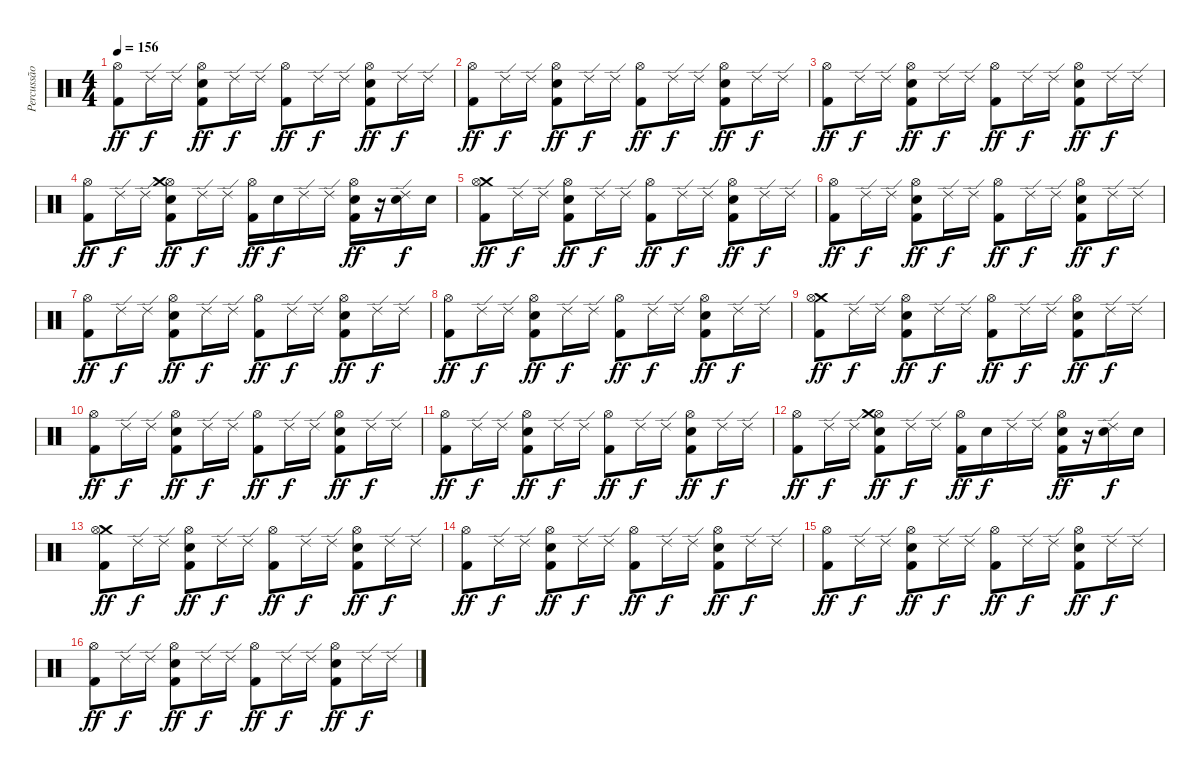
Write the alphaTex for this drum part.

\track ("Percussão" "Percussão") {instrument percussion}
\staff {score}
\articulation defaults
\ts (4 4)
\tempo 156
\clef neutral
\ks c
("Hi-Hat (open)" "Kick (hit) 2").8{dy ff} "Ride (edge) 2".16{dy f} "Ride (edge) 2".16 ("Hi-Hat (open)" "Snare (hit) 2" "Kick (hit) 2").8{dy ff} "Ride (edge) 2".16{dy f} "Ride (edge) 2".16 ("Hi-Hat (open)" "Kick (hit) 2").8{dy ff} "Ride (edge) 2".16{dy f} "Ride (edge) 2".16 ("Hi-Hat (open)" "Snare (hit) 2" "Kick (hit) 2").8{dy ff} "Ride (edge) 2".16{dy f} "Ride (edge) 2".16 |
("Hi-Hat (open)" "Kick (hit) 2").8{dy ff} "Ride (edge) 2".16{dy f} "Ride (edge) 2".16 ("Hi-Hat (open)" "Snare (hit) 2" "Kick (hit) 2").8{dy ff} "Ride (edge) 2".16{dy f} "Ride (edge) 2".16 ("Hi-Hat (open)" "Kick (hit) 2").8{dy ff} "Ride (edge) 2".16{dy f} "Ride (edge) 2".16 ("Hi-Hat (open)" "Snare (hit) 2" "Kick (hit) 2").8{dy ff} "Ride (edge) 2".16{dy f} "Ride (edge) 2".16 |
("Hi-Hat (open)" "Kick (hit) 2").8{dy ff} "Ride (edge) 2".16{dy f} "Ride (edge) 2".16 ("Hi-Hat (open)" "Snare (hit) 2" "Kick (hit) 2").8{dy ff} "Ride (edge) 2".16{dy f} "Ride (edge) 2".16 ("Hi-Hat (open)" "Kick (hit) 2").8{dy ff} "Ride (edge) 2".16{dy f} "Ride (edge) 2".16 ("Hi-Hat (open)" "Snare (hit) 2" "Kick (hit) 2").8{dy ff} "Ride (edge) 2".16{dy f} "Ride (edge) 2".16 |
("Hi-Hat (open)" "Kick (hit) 2").8{dy ff} "Ride (edge) 2".16{dy f} "Ride (edge) 2".16 ("Hi-Hat (open)" "Crash medium (hit)" "Snare (hit) 2" "Kick (hit) 2").8{dy ff} "Ride (edge) 2".16{dy f} "Ride (edge) 2".16 ("Hi-Hat (open)" "Kick (hit) 2").16{dy ff} "Snare (hit) 2".16{dy f} "Ride (edge) 2".16 "Ride (edge) 2".16 ("Hi-Hat (open)" "Snare (hit) 2" "Kick (hit) 2").16{dy ff} r.16 ("Ride (edge) 2" "Snare (hit) 2").16{dy f} "Snare (hit) 2".16 |
("Crash medium (hit)" "Hi-Hat (open)" "Kick (hit) 2").8{dy ff} "Ride (edge) 2".16{dy f} "Ride (edge) 2".16 ("Hi-Hat (open)" "Snare (hit) 2" "Kick (hit) 2").8{dy ff} "Ride (edge) 2".16{dy f} "Ride (edge) 2".16 ("Hi-Hat (open)" "Kick (hit) 2").8{dy ff} "Ride (edge) 2".16{dy f} "Ride (edge) 2".16 ("Hi-Hat (open)" "Snare (hit) 2" "Kick (hit) 2").8{dy ff} "Ride (edge) 2".16{dy f} "Ride (edge) 2".16 |
("Hi-Hat (open)" "Kick (hit) 2").8{dy ff} "Ride (edge) 2".16{dy f} "Ride (edge) 2".16 ("Hi-Hat (open)" "Snare (hit) 2" "Kick (hit) 2").8{dy ff} "Ride (edge) 2".16{dy f} "Ride (edge) 2".16 ("Hi-Hat (open)" "Kick (hit) 2").8{dy ff} "Ride (edge) 2".16{dy f} "Ride (edge) 2".16 ("Hi-Hat (open)" "Snare (hit) 2" "Kick (hit) 2").8{dy ff} "Ride (edge) 2".16{dy f} "Ride (edge) 2".16 |
("Hi-Hat (open)" "Kick (hit) 2").8{dy ff} "Ride (edge) 2".16{dy f} "Ride (edge) 2".16 ("Hi-Hat (open)" "Snare (hit) 2" "Kick (hit) 2").8{dy ff} "Ride (edge) 2".16{dy f} "Ride (edge) 2".16 ("Hi-Hat (open)" "Kick (hit) 2").8{dy ff} "Ride (edge) 2".16{dy f} "Ride (edge) 2".16 ("Hi-Hat (open)" "Snare (hit) 2" "Kick (hit) 2").8{dy ff} "Ride (edge) 2".16{dy f} "Ride (edge) 2".16 |
("Hi-Hat (open)" "Kick (hit) 2").8{dy ff} "Ride (edge) 2".16{dy f} "Ride (edge) 2".16 ("Hi-Hat (open)" "Snare (hit) 2" "Kick (hit) 2").8{dy ff} "Ride (edge) 2".16{dy f} "Ride (edge) 2".16 ("Hi-Hat (open)" "Kick (hit) 2").8{dy ff} "Ride (edge) 2".16{dy f} "Ride (edge) 2".16 ("Hi-Hat (open)" "Snare (hit) 2" "Kick (hit) 2").8{dy ff} "Ride (edge) 2".16{dy f} "Ride (edge) 2".16 |
("Crash medium (hit)" "Hi-Hat (open)" "Kick (hit) 2").8{dy ff} "Ride (edge) 2".16{dy f} "Ride (edge) 2".16 ("Hi-Hat (open)" "Snare (hit) 2" "Kick (hit) 2").8{dy ff} "Ride (edge) 2".16{dy f} "Ride (edge) 2".16 ("Hi-Hat (open)" "Kick (hit) 2").8{dy ff} "Ride (edge) 2".16{dy f} "Ride (edge) 2".16 ("Hi-Hat (open)" "Snare (hit) 2" "Kick (hit) 2").8{dy ff} "Ride (edge) 2".16{dy f} "Ride (edge) 2".16 |
("Hi-Hat (open)" "Kick (hit) 2").8{dy ff} "Ride (edge) 2".16{dy f} "Ride (edge) 2".16 ("Hi-Hat (open)" "Snare (hit) 2" "Kick (hit) 2").8{dy ff} "Ride (edge) 2".16{dy f} "Ride (edge) 2".16 ("Hi-Hat (open)" "Kick (hit) 2").8{dy ff} "Ride (edge) 2".16{dy f} "Ride (edge) 2".16 ("Hi-Hat (open)" "Snare (hit) 2" "Kick (hit) 2").8{dy ff} "Ride (edge) 2".16{dy f} "Ride (edge) 2".16 |
("Hi-Hat (open)" "Kick (hit) 2").8{dy ff} "Ride (edge) 2".16{dy f} "Ride (edge) 2".16 ("Hi-Hat (open)" "Snare (hit) 2" "Kick (hit) 2").8{dy ff} "Ride (edge) 2".16{dy f} "Ride (edge) 2".16 ("Hi-Hat (open)" "Kick (hit) 2").8{dy ff} "Ride (edge) 2".16{dy f} "Ride (edge) 2".16 ("Hi-Hat (open)" "Snare (hit) 2" "Kick (hit) 2").8{dy ff} "Ride (edge) 2".16{dy f} "Ride (edge) 2".16 |
("Hi-Hat (open)" "Kick (hit) 2").8{dy ff} "Ride (edge) 2".16{dy f} "Ride (edge) 2".16 ("Hi-Hat (open)" "Crash medium (hit)" "Snare (hit) 2" "Kick (hit) 2").8{dy ff} "Ride (edge) 2".16{dy f} "Ride (edge) 2".16 ("Hi-Hat (open)" "Kick (hit) 2").16{dy ff} "Snare (hit) 2".16{dy f} "Ride (edge) 2".16 "Ride (edge) 2".16 ("Hi-Hat (open)" "Snare (hit) 2" "Kick (hit) 2").16{dy ff} r.16 ("Ride (edge) 2" "Snare (hit) 2").16{dy f} "Snare (hit) 2".16 |
("Crash medium (hit)" "Hi-Hat (open)" "Kick (hit) 2").8{dy ff} "Ride (edge) 2".16{dy f} "Ride (edge) 2".16 ("Hi-Hat (open)" "Snare (hit) 2" "Kick (hit) 2").8{dy ff} "Ride (edge) 2".16{dy f} "Ride (edge) 2".16 ("Hi-Hat (open)" "Kick (hit) 2").8{dy ff} "Ride (edge) 2".16{dy f} "Ride (edge) 2".16 ("Hi-Hat (open)" "Snare (hit) 2" "Kick (hit) 2").8{dy ff} "Ride (edge) 2".16{dy f} "Ride (edge) 2".16 |
("Hi-Hat (open)" "Kick (hit) 2").8{dy ff} "Ride (edge) 2".16{dy f} "Ride (edge) 2".16 ("Hi-Hat (open)" "Snare (hit) 2" "Kick (hit) 2").8{dy ff} "Ride (edge) 2".16{dy f} "Ride (edge) 2".16 ("Hi-Hat (open)" "Kick (hit) 2").8{dy ff} "Ride (edge) 2".16{dy f} "Ride (edge) 2".16 ("Hi-Hat (open)" "Snare (hit) 2" "Kick (hit) 2").8{dy ff} "Ride (edge) 2".16{dy f} "Ride (edge) 2".16 |
("Hi-Hat (open)" "Kick (hit) 2").8{dy ff} "Ride (edge) 2".16{dy f} "Ride (edge) 2".16 ("Hi-Hat (open)" "Snare (hit) 2" "Kick (hit) 2").8{dy ff} "Ride (edge) 2".16{dy f} "Ride (edge) 2".16 ("Hi-Hat (open)" "Kick (hit) 2").8{dy ff} "Ride (edge) 2".16{dy f} "Ride (edge) 2".16 ("Hi-Hat (open)" "Snare (hit) 2" "Kick (hit) 2").8{dy ff} "Ride (edge) 2".16{dy f} "Ride (edge) 2".16 |
("Hi-Hat (open)" "Kick (hit) 2").8{dy ff} "Ride (edge) 2".16{dy f} "Ride (edge) 2".16 ("Hi-Hat (open)" "Snare (hit) 2" "Kick (hit) 2").8{dy ff} "Ride (edge) 2".16{dy f} "Ride (edge) 2".16 ("Hi-Hat (open)" "Kick (hit) 2").8{dy ff} "Ride (edge) 2".16{dy f} "Ride (edge) 2".16 ("Hi-Hat (open)" "Snare (hit) 2" "Kick (hit) 2").8{dy ff} "Ride (edge) 2".16{dy f} "Ride (edge) 2".16
